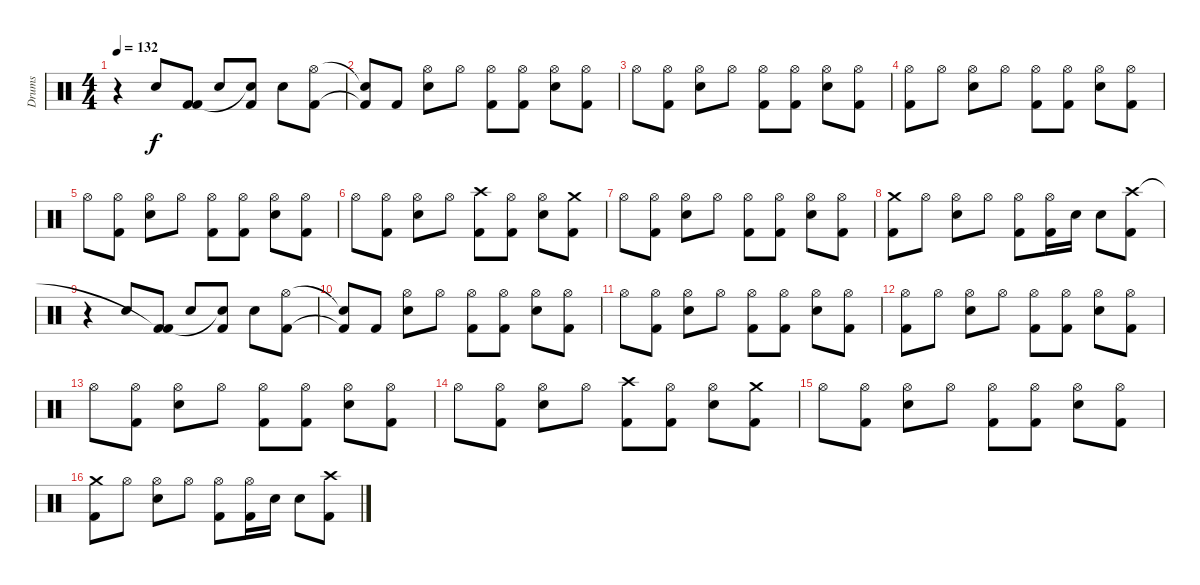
\track ("Drums" "Drums") {instrument percussion}
\staff
\articulation defaults
\ts (4 4)
\tempo 132
\clef neutral
\ks c
r.4{dy f} "Snare (hit) 2".8 ("Kick (hit) 2" "Kick (hit) 2").8 "Snare (hit) 2".8 ("Kick (hit) 2" "Snare (hit)"{t}).8 "Snare (hit) 2".8 ("Kick (hit) 2" "Hi-Hat (open)").8 |
("Kick (hit) 2"{t} "Snare (hit)"{t}).8 "Kick (hit) 2".8 ("Snare (hit) 2" "Hi-Hat (open)").8 "Hi-Hat (open)".8 ("Kick (hit) 2" "Hi-Hat (open)").8 ("Kick (hit) 2" "Hi-Hat (open)").8 ("Snare (hit) 2" "Hi-Hat (open)").8 ("Kick (hit) 2" "Hi-Hat (open)").8 |
"Hi-Hat (open)".8 ("Kick (hit) 2" "Hi-Hat (open)").8 ("Snare (hit) 2" "Hi-Hat (open)").8 "Hi-Hat (open)".8 ("Kick (hit) 2" "Hi-Hat (open)").8 ("Kick (hit) 2" "Hi-Hat (open)").8 ("Snare (hit) 2" "Hi-Hat (open)").8 ("Kick (hit) 2" "Hi-Hat (open)").8 |
("Kick (hit) 2" "Hi-Hat (open)").8 "Hi-Hat (open)".8 ("Snare (hit) 2" "Hi-Hat (open)").8 "Hi-Hat (open)".8 ("Kick (hit) 2" "Hi-Hat (open)").8 ("Kick (hit) 2" "Hi-Hat (open)").8 ("Snare (hit) 2" "Hi-Hat (open)").8 ("Kick (hit) 2" "Hi-Hat (open)").8 |
"Hi-Hat (open)".8 ("Kick (hit) 2" "Hi-Hat (open)").8 ("Snare (hit) 2" "Hi-Hat (open)").8 "Hi-Hat (open)".8 ("Kick (hit) 2" "Hi-Hat (open)").8 ("Kick (hit) 2" "Hi-Hat (open)").8 ("Snare (hit) 2" "Hi-Hat (open)").8 ("Kick (hit) 2" "Hi-Hat (open)").8 |
"Hi-Hat (open)".8 ("Kick (hit) 2" "Hi-Hat (open)").8 ("Snare (hit) 2" "Hi-Hat (open)").8 "Hi-Hat (open)".8 ("Kick (hit) 2" "Crash high (hit)").8 ("Kick (hit) 2" "Hi-Hat (open)").8 ("Snare (hit) 2" "Hi-Hat (open)").8 ("Kick (hit) 2" "Crash medium (hit)").8 |
"Hi-Hat (open)".8 ("Kick (hit) 2" "Hi-Hat (open)").8 ("Snare (hit) 2" "Hi-Hat (open)").8 "Hi-Hat (open)".8 ("Kick (hit) 2" "Hi-Hat (open)").8 ("Kick (hit) 2" "Hi-Hat (open)").8 ("Snare (hit) 2" "Hi-Hat (open)").8 ("Kick (hit) 2" "Hi-Hat (open)").8 |
("Kick (hit) 2" "Crash medium (hit)").8 "Hi-Hat (open)".8 ("Snare (hit) 2" "Hi-Hat (open)").8 "Hi-Hat (open)".8 ("Kick (hit) 2" "Hi-Hat (open)").8 ("Kick (hit) 2" "Hi-Hat (open)").16 "Snare (hit) 2".16 "Snare (hit) 2".8 ("Kick (hit) 2" "Crash high (hit)").8 |
r.4 "Snare (hit) 2".8 ("Kick (hit) 2" "Kick (hit) 2"{t}).8 "Snare (hit) 2".8 ("Kick (hit) 2" "Snare (hit)"{t}).8 "Snare (hit) 2".8 ("Kick (hit) 2" "Hi-Hat (open)").8 |
("Kick (hit) 2"{t} "Snare (hit)"{t}).8 "Kick (hit) 2".8 ("Snare (hit) 2" "Hi-Hat (open)").8 "Hi-Hat (open)".8 ("Kick (hit) 2" "Hi-Hat (open)").8 ("Kick (hit) 2" "Hi-Hat (open)").8 ("Snare (hit) 2" "Hi-Hat (open)").8 ("Kick (hit) 2" "Hi-Hat (open)").8 |
"Hi-Hat (open)".8 ("Kick (hit) 2" "Hi-Hat (open)").8 ("Snare (hit) 2" "Hi-Hat (open)").8 "Hi-Hat (open)".8 ("Kick (hit) 2" "Hi-Hat (open)").8 ("Kick (hit) 2" "Hi-Hat (open)").8 ("Snare (hit) 2" "Hi-Hat (open)").8 ("Kick (hit) 2" "Hi-Hat (open)").8 |
("Kick (hit) 2" "Hi-Hat (open)").8 "Hi-Hat (open)".8 ("Snare (hit) 2" "Hi-Hat (open)").8 "Hi-Hat (open)".8 ("Kick (hit) 2" "Hi-Hat (open)").8 ("Kick (hit) 2" "Hi-Hat (open)").8 ("Snare (hit) 2" "Hi-Hat (open)").8 ("Kick (hit) 2" "Hi-Hat (open)").8 |
"Hi-Hat (open)".8 ("Kick (hit) 2" "Hi-Hat (open)").8 ("Snare (hit) 2" "Hi-Hat (open)").8 "Hi-Hat (open)".8 ("Kick (hit) 2" "Hi-Hat (open)").8 ("Kick (hit) 2" "Hi-Hat (open)").8 ("Snare (hit) 2" "Hi-Hat (open)").8 ("Kick (hit) 2" "Hi-Hat (open)").8 |
"Hi-Hat (open)".8 ("Kick (hit) 2" "Hi-Hat (open)").8 ("Snare (hit) 2" "Hi-Hat (open)").8 "Hi-Hat (open)".8 ("Kick (hit) 2" "Crash high (hit)").8 ("Kick (hit) 2" "Hi-Hat (open)").8 ("Snare (hit) 2" "Hi-Hat (open)").8 ("Kick (hit) 2" "Crash medium (hit)").8 |
"Hi-Hat (open)".8 ("Kick (hit) 2" "Hi-Hat (open)").8 ("Snare (hit) 2" "Hi-Hat (open)").8 "Hi-Hat (open)".8 ("Kick (hit) 2" "Hi-Hat (open)").8 ("Kick (hit) 2" "Hi-Hat (open)").8 ("Snare (hit) 2" "Hi-Hat (open)").8 ("Kick (hit) 2" "Hi-Hat (open)").8 |
("Kick (hit) 2" "Crash medium (hit)").8 "Hi-Hat (open)".8 ("Snare (hit) 2" "Hi-Hat (open)").8 "Hi-Hat (open)".8 ("Kick (hit) 2" "Hi-Hat (open)").8 ("Kick (hit) 2" "Hi-Hat (open)").16 "Snare (hit) 2".16 "Snare (hit) 2".8 ("Kick (hit) 2" "Crash high (hit)").8
